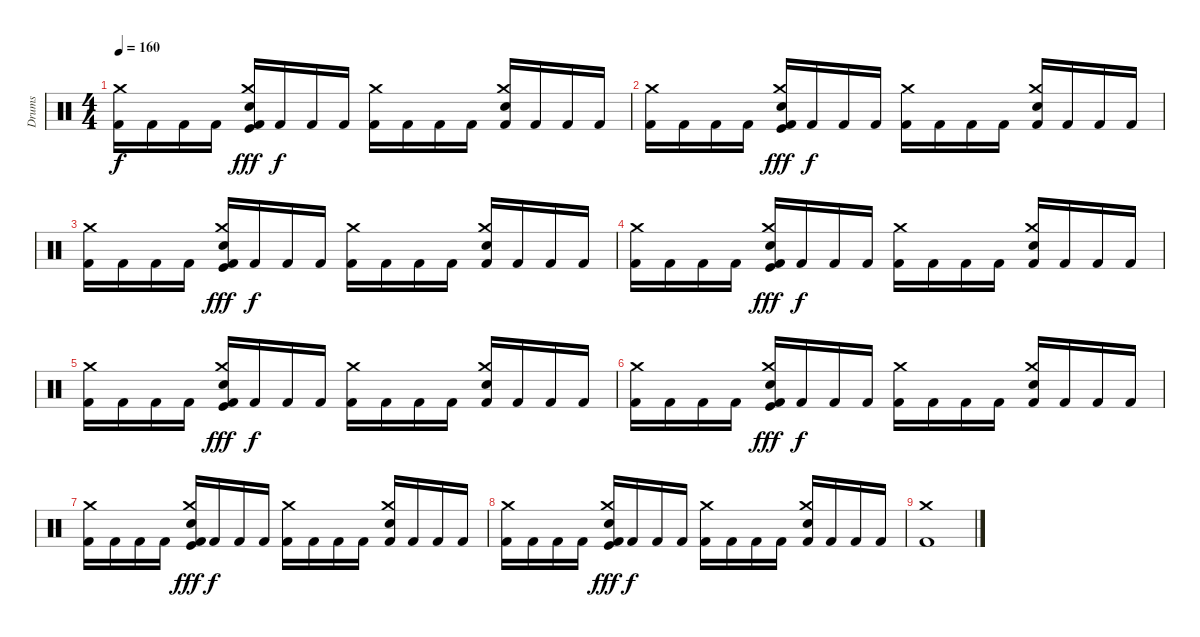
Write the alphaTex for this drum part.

\track ("Drums" "Drums") {instrument percussion}
\staff {score}
\articulation defaults
\ts (4 4)
\tempo 160
\clef neutral
\ks c
("Kick (hit) 2" "Crash medium (hit)").16{dy f} "Kick (hit) 2".16 "Kick (hit) 2".16 "Kick (hit) 2".16 ("Kick (hit) 2" "Snare (hit) 2" "Kick (hit)" "Crash medium (hit)").16{dy fff} "Kick (hit) 2".16{dy f} "Kick (hit) 2".16 "Kick (hit) 2".16 ("Kick (hit) 2" "Crash medium (hit)").16 "Kick (hit) 2".16 "Kick (hit) 2".16 "Kick (hit) 2".16 ("Kick (hit) 2" "Snare (hit) 2" "Crash medium (hit)").16 "Kick (hit) 2".16 "Kick (hit) 2".16 "Kick (hit) 2".16 |
("Kick (hit) 2" "Crash medium (hit)").16 "Kick (hit) 2".16 "Kick (hit) 2".16 "Kick (hit) 2".16 ("Kick (hit) 2" "Snare (hit) 2" "Kick (hit)" "Crash medium (hit)").16{dy fff} "Kick (hit) 2".16{dy f} "Kick (hit) 2".16 "Kick (hit) 2".16 ("Kick (hit) 2" "Crash medium (hit)").16 "Kick (hit) 2".16 "Kick (hit) 2".16 "Kick (hit) 2".16 ("Kick (hit) 2" "Snare (hit) 2" "Crash medium (hit)").16 "Kick (hit) 2".16 "Kick (hit) 2".16 "Kick (hit) 2".16 |
("Kick (hit) 2" "Crash medium (hit)").16 "Kick (hit) 2".16 "Kick (hit) 2".16 "Kick (hit) 2".16 ("Kick (hit) 2" "Snare (hit) 2" "Kick (hit)" "Crash medium (hit)").16{dy fff} "Kick (hit) 2".16{dy f} "Kick (hit) 2".16 "Kick (hit) 2".16 ("Kick (hit) 2" "Crash medium (hit)").16 "Kick (hit) 2".16 "Kick (hit) 2".16 "Kick (hit) 2".16 ("Kick (hit) 2" "Snare (hit) 2" "Crash medium (hit)").16 "Kick (hit) 2".16 "Kick (hit) 2".16 "Kick (hit) 2".16 |
("Kick (hit) 2" "Crash medium (hit)").16 "Kick (hit) 2".16 "Kick (hit) 2".16 "Kick (hit) 2".16 ("Kick (hit) 2" "Snare (hit) 2" "Kick (hit)" "Crash medium (hit)").16{dy fff} "Kick (hit) 2".16{dy f} "Kick (hit) 2".16 "Kick (hit) 2".16 ("Kick (hit) 2" "Crash medium (hit)").16 "Kick (hit) 2".16 "Kick (hit) 2".16 "Kick (hit) 2".16 ("Kick (hit) 2" "Snare (hit) 2" "Crash medium (hit)").16 "Kick (hit) 2".16 "Kick (hit) 2".16 "Kick (hit) 2".16 |
("Kick (hit) 2" "Crash medium (hit)").16 "Kick (hit) 2".16 "Kick (hit) 2".16 "Kick (hit) 2".16 ("Kick (hit) 2" "Snare (hit) 2" "Kick (hit)" "Crash medium (hit)").16{dy fff} "Kick (hit) 2".16{dy f} "Kick (hit) 2".16 "Kick (hit) 2".16 ("Kick (hit) 2" "Crash medium (hit)").16 "Kick (hit) 2".16 "Kick (hit) 2".16 "Kick (hit) 2".16 ("Kick (hit) 2" "Snare (hit) 2" "Crash medium (hit)").16 "Kick (hit) 2".16 "Kick (hit) 2".16 "Kick (hit) 2".16 |
("Kick (hit) 2" "Crash medium (hit)").16 "Kick (hit) 2".16 "Kick (hit) 2".16 "Kick (hit) 2".16 ("Kick (hit) 2" "Snare (hit) 2" "Kick (hit)" "Crash medium (hit)").16{dy fff} "Kick (hit) 2".16{dy f} "Kick (hit) 2".16 "Kick (hit) 2".16 ("Kick (hit) 2" "Crash medium (hit)").16 "Kick (hit) 2".16 "Kick (hit) 2".16 "Kick (hit) 2".16 ("Kick (hit) 2" "Snare (hit) 2" "Crash medium (hit)").16 "Kick (hit) 2".16 "Kick (hit) 2".16 "Kick (hit) 2".16 |
("Kick (hit) 2" "Crash medium (hit)").16 "Kick (hit) 2".16 "Kick (hit) 2".16 "Kick (hit) 2".16 ("Kick (hit) 2" "Snare (hit) 2" "Kick (hit)" "Crash medium (hit)").16{dy fff} "Kick (hit) 2".16{dy f} "Kick (hit) 2".16 "Kick (hit) 2".16 ("Kick (hit) 2" "Crash medium (hit)").16 "Kick (hit) 2".16 "Kick (hit) 2".16 "Kick (hit) 2".16 ("Kick (hit) 2" "Snare (hit) 2" "Crash medium (hit)").16 "Kick (hit) 2".16 "Kick (hit) 2".16 "Kick (hit) 2".16 |
("Kick (hit) 2" "Crash medium (hit)").16 "Kick (hit) 2".16 "Kick (hit) 2".16 "Kick (hit) 2".16 ("Kick (hit) 2" "Snare (hit) 2" "Kick (hit)" "Crash medium (hit)").16{dy fff} "Kick (hit) 2".16{dy f} "Kick (hit) 2".16 "Kick (hit) 2".16 ("Kick (hit) 2" "Crash medium (hit)").16 "Kick (hit) 2".16 "Kick (hit) 2".16 "Kick (hit) 2".16 ("Kick (hit) 2" "Snare (hit) 2" "Crash medium (hit)").16 "Kick (hit) 2".16 "Kick (hit) 2".16 "Kick (hit) 2".16 |
("Crash medium (hit)" "Kick (hit) 2").1
